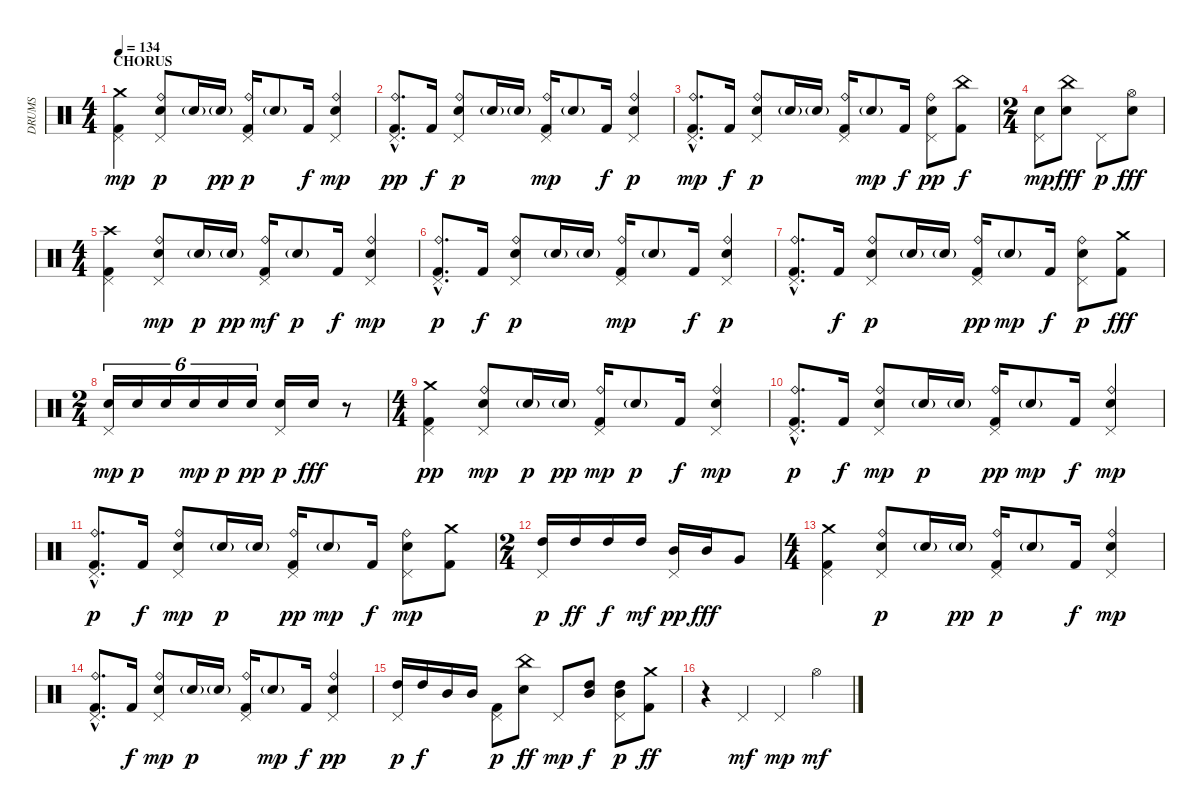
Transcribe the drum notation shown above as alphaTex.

\track ("DRUMS" "DRUMS") {instrument percussion}
\staff {score}
\articulation defaults
\ts (4 4)
\section ("" "CHORUS")
\tempo 134
\clef neutral
\ks c
("Crash medium (hit)" "Pedal Hi-Hat (hit)" "Kick (hit) 2").4{dy mp} ("Ride (bell)" "Electric Snare (hit)" "Pedal Hi-Hat (hit)").8{dy p} "Electric Snare (hit)"{g}.16 "Electric Snare (hit)"{g}.16{dy pp} ("Ride (bell)" "Pedal Hi-Hat (hit)" "Kick (hit) 2").16{dy p} "Electric Snare (hit)"{g}.8 "Kick (hit) 2".16{dy f} ("Ride (bell)" "Electric Snare (hit)" "Pedal Hi-Hat (hit)").4{dy mp} |
("Ride (bell)"{hac} "Pedal Hi-Hat (hit)"{hac} "Kick (hit) 2"{hac}).8{d dy pp} "Kick (hit) 2".16{dy f} ("Ride (bell)" "Electric Snare (hit)" "Pedal Hi-Hat (hit)").8{dy p} "Electric Snare (hit)"{g}.16 "Electric Snare (hit)"{g}.16 ("Ride (bell)" "Pedal Hi-Hat (hit)" "Kick (hit) 2").16{dy mp} "Electric Snare (hit)"{g}.8 "Kick (hit) 2".16{dy f} ("Ride (bell)" "Electric Snare (hit)" "Pedal Hi-Hat (hit)").4{dy p} |
("Ride (bell)"{hac} "Pedal Hi-Hat (hit)"{hac} "Kick (hit) 2"{hac}).8{d dy mp} "Kick (hit) 2".16{dy f} ("Ride (bell)" "Electric Snare (hit)" "Pedal Hi-Hat (hit)").8{dy p} "Electric Snare (hit)"{g}.16 "Electric Snare (hit)"{g}.16 ("Ride (bell)" "Pedal Hi-Hat (hit)" "Kick (hit) 2").16 "Electric Snare (hit)"{g}.8{dy mp} "Kick (hit) 2".16{dy f} ("Ride (bell)" "Electric Snare (hit)" "Pedal Hi-Hat (hit)").8{dy pp} ("China (hit)" "Kick (hit) 2").8{dy f} |
\ts (2 4)
("Electric Snare (hit)" "Pedal Hi-Hat (hit)").8{dy mp} ("China (hit)" "Electric Snare (hit)").8{dy fff} "Pedal Hi-Hat (hit)".8{dy p} ("Hi-Hat (open)" "Electric Snare (hit)").8{dy fff} |
\ts (4 4)
("Crash high (hit)" "Pedal Hi-Hat (hit)" "Kick (hit) 2").4 ("Ride (bell)" "Electric Snare (hit)" "Pedal Hi-Hat (hit)").8{dy mp} "Electric Snare (hit)"{g}.16{dy p} "Electric Snare (hit)"{g}.16{dy pp} ("Ride (bell)" "Pedal Hi-Hat (hit)" "Kick (hit) 2").16{dy mf} "Electric Snare (hit)"{g}.8{dy p} "Kick (hit) 2".16{dy f} ("Ride (bell)" "Electric Snare (hit)" "Pedal Hi-Hat (hit)").4{dy mp} |
("Ride (bell)"{hac} "Pedal Hi-Hat (hit)"{hac} "Kick (hit) 2"{hac}).8{d dy p} "Kick (hit) 2".16{dy f} ("Ride (bell)" "Electric Snare (hit)" "Pedal Hi-Hat (hit)").8{dy p} "Electric Snare (hit)"{g}.16 "Electric Snare (hit)"{g}.16 ("Ride (bell)" "Pedal Hi-Hat (hit)" "Kick (hit) 2").16{dy mp} "Electric Snare (hit)"{g}.8 "Kick (hit) 2".16{dy f} ("Ride (bell)" "Electric Snare (hit)" "Pedal Hi-Hat (hit)").4{dy p} |
("Ride (bell)"{hac} "Pedal Hi-Hat (hit)"{hac} "Kick (hit) 2"{hac}).8{d} "Kick (hit) 2".16{dy f} ("Ride (bell)" "Electric Snare (hit)" "Pedal Hi-Hat (hit)").8{dy p} "Electric Snare (hit)"{g}.16 "Electric Snare (hit)"{g}.16 ("Ride (bell)" "Pedal Hi-Hat (hit)" "Kick (hit) 2").16{dy pp} "Electric Snare (hit)"{g}.8{dy mp} "Kick (hit) 2".16{dy f} ("Ride (bell)" "Electric Snare (hit)" "Pedal Hi-Hat (hit)").8{dy p} ("Crash medium (hit)" "Kick (hit) 2").8{dy fff} |
\ts (2 4)
("Electric Snare (hit)" "Pedal Hi-Hat (hit)").16{tu (6 4) dy mp} "Electric Snare (hit)".16{tu (6 4) dy p} "Electric Snare (hit)".16{tu (6 4)} "Electric Snare (hit)".16{tu (6 4) dy mp} "Electric Snare (hit)".16{tu (6 4) dy p} "Electric Snare (hit)".16{tu (6 4) dy pp} ("Electric Snare (hit)" "Pedal Hi-Hat (hit)").16{dy p} "Electric Snare (hit)".16{dy fff} r.8 |
\ts (4 4)
("Crash medium (hit)" "Pedal Hi-Hat (hit)" "Kick (hit) 2").4{dy pp} ("Ride (bell)" "Electric Snare (hit)" "Pedal Hi-Hat (hit)").8{dy mp} "Electric Snare (hit)"{g}.16{dy p} "Electric Snare (hit)"{g}.16{dy pp} ("Ride (bell)" "Pedal Hi-Hat (hit)" "Kick (hit) 2").16{dy mp} "Electric Snare (hit)"{g}.8{dy p} "Kick (hit) 2".16{dy f} ("Ride (bell)" "Electric Snare (hit)" "Pedal Hi-Hat (hit)").4{dy mp} |
("Ride (bell)"{hac} "Pedal Hi-Hat (hit)"{hac} "Kick (hit) 2"{hac}).8{d dy p} "Kick (hit) 2".16{dy f} ("Ride (bell)" "Electric Snare (hit)" "Pedal Hi-Hat (hit)").8{dy mp} "Electric Snare (hit)"{g}.16{dy p} "Electric Snare (hit)"{g}.16 ("Ride (bell)" "Pedal Hi-Hat (hit)" "Kick (hit) 2").16{dy pp} "Electric Snare (hit)"{g}.8{dy mp} "Kick (hit) 2".16{dy f} ("Ride (bell)" "Electric Snare (hit)" "Pedal Hi-Hat (hit)").4{dy mp} |
("Ride (bell)"{hac} "Pedal Hi-Hat (hit)"{hac} "Kick (hit) 2"{hac}).8{d dy p} "Kick (hit) 2".16{dy f} ("Ride (bell)" "Electric Snare (hit)" "Pedal Hi-Hat (hit)").8{dy mp} "Electric Snare (hit)"{g}.16{dy p} "Electric Snare (hit)"{g}.16 ("Ride (bell)" "Pedal Hi-Hat (hit)" "Kick (hit) 2").16{dy pp} "Electric Snare (hit)"{g}.8{dy mp} "Kick (hit) 2".16{dy f} ("Ride (bell)" "Electric Snare (hit)" "Pedal Hi-Hat (hit)").8{dy mp} ("Crash medium (hit)" "Kick (hit) 2").8 |
\ts (2 4)
("High Tom (hit)" "Pedal Hi-Hat (hit)").16{dy p} "High Tom (hit)".16{dy ff} "High Tom (hit)".16{dy f} "High Tom (hit)".16{dy mf} ("Mid Tom (hit)" "Pedal Hi-Hat (hit)").16{dy pp} "Mid Tom (hit)".16{dy fff} "Very Low Tom (hit)".8 |
\ts (4 4)
("Crash medium (hit)" "Pedal Hi-Hat (hit)" "Kick (hit) 2").4 ("Ride (bell)" "Electric Snare (hit)" "Pedal Hi-Hat (hit)").8{dy p} "Electric Snare (hit)"{g}.16 "Electric Snare (hit)"{g}.16{dy pp} ("Ride (bell)" "Pedal Hi-Hat (hit)" "Kick (hit) 2").16{dy p} "Electric Snare (hit)"{g}.8 "Kick (hit) 2".16{dy f} ("Ride (bell)" "Electric Snare (hit)" "Pedal Hi-Hat (hit)").4{dy mp} |
("Ride (bell)"{hac} "Pedal Hi-Hat (hit)"{hac} "Kick (hit) 2"{hac}).8{d} "Kick (hit) 2".16{dy f} ("Ride (bell)" "Electric Snare (hit)" "Pedal Hi-Hat (hit)").8{dy mp} "Electric Snare (hit)"{g}.16{dy p} "Electric Snare (hit)"{g}.16 ("Ride (bell)" "Pedal Hi-Hat (hit)" "Kick (hit) 2").16 "Electric Snare (hit)"{g}.8{dy mp} "Kick (hit) 2".16{dy f} ("Ride (bell)" "Electric Snare (hit)" "Pedal Hi-Hat (hit)").4{dy pp} |
("High Tom (hit)" "Pedal Hi-Hat (hit)").16{dy p} "High Tom (hit)".16{dy f} "Mid Tom (hit)".16 "Mid Tom (hit)".16 ("Pedal Hi-Hat (hit)" "Kick (hit) 2").8{dy p} ("China (hit)" "Electric Snare (hit)").8{dy ff} "Pedal Hi-Hat (hit)".8{dy mp} ("High Tom (hit)" "Mid Tom (hit)").8{dy f} ("High Tom (hit)" "Mid Tom (hit)" "Pedal Hi-Hat (hit)").8{dy p} ("Crash medium (hit)" "Kick (hit) 2").8{dy ff} |
r.4 "Pedal Hi-Hat (hit)".4{dy mf} "Pedal Hi-Hat (hit)".4{dy mp} "Hi-Hat (open)".4{dy mf}
